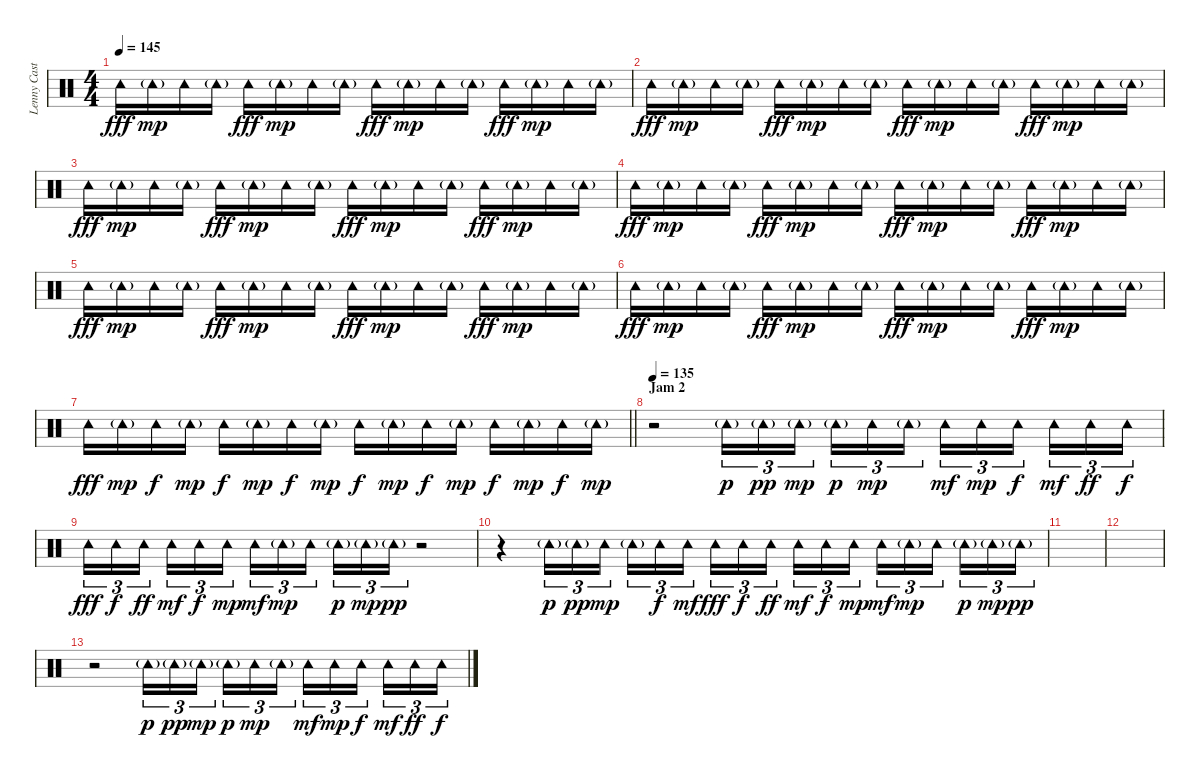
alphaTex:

\track ("Lenny Castro - Percussion" "Lenny Cast") {instrument percussion}
\staff {score}
\articulation defaults
\ts (4 4)
\tempo 145
\clef neutral
\ks c "Tambourine (hit)".16{dy fff} "Tambourine (hit)"{g}.16{dy mp} "Tambourine (hit)".16 "Tambourine (hit)"{g}.16 "Tambourine (hit)".16{dy fff} "Tambourine (hit)"{g}.16{dy mp} "Tambourine (hit)".16 "Tambourine (hit)"{g}.16 "Tambourine (hit)".16{dy fff} "Tambourine (hit)"{g}.16{dy mp} "Tambourine (hit)".16 "Tambourine (hit)"{g}.16 "Tambourine (hit)".16{dy fff} "Tambourine (hit)"{g}.16{dy mp} "Tambourine (hit)".16 "Tambourine (hit)"{g}.16
|
"Tambourine (hit)".16{dy fff} "Tambourine (hit)"{g}.16{dy mp} "Tambourine (hit)".16 "Tambourine (hit)"{g}.16 "Tambourine (hit)".16{dy fff} "Tambourine (hit)"{g}.16{dy mp} "Tambourine (hit)".16 "Tambourine (hit)"{g}.16 "Tambourine (hit)".16{dy fff} "Tambourine (hit)"{g}.16{dy mp} "Tambourine (hit)".16 "Tambourine (hit)"{g}.16 "Tambourine (hit)".16{dy fff} "Tambourine (hit)"{g}.16{dy mp} "Tambourine (hit)".16 "Tambourine (hit)"{g}.16 |
"Tambourine (hit)".16{dy fff} "Tambourine (hit)"{g}.16{dy mp} "Tambourine (hit)".16 "Tambourine (hit)"{g}.16 "Tambourine (hit)".16{dy fff} "Tambourine (hit)"{g}.16{dy mp} "Tambourine (hit)".16 "Tambourine (hit)"{g}.16 "Tambourine (hit)".16{dy fff} "Tambourine (hit)"{g}.16{dy mp} "Tambourine (hit)".16 "Tambourine (hit)"{g}.16 "Tambourine (hit)".16{dy fff} "Tambourine (hit)"{g}.16{dy mp} "Tambourine (hit)".16 "Tambourine (hit)"{g}.16 |
"Tambourine (hit)".16{dy fff} "Tambourine (hit)"{g}.16{dy mp} "Tambourine (hit)".16 "Tambourine (hit)"{g}.16 "Tambourine (hit)".16{dy fff} "Tambourine (hit)"{g}.16{dy mp} "Tambourine (hit)".16 "Tambourine (hit)"{g}.16 "Tambourine (hit)".16{dy fff} "Tambourine (hit)"{g}.16{dy mp} "Tambourine (hit)".16 "Tambourine (hit)"{g}.16 "Tambourine (hit)".16{dy fff} "Tambourine (hit)"{g}.16{dy mp} "Tambourine (hit)".16 "Tambourine (hit)"{g}.16 |
"Tambourine (hit)".16{dy fff} "Tambourine (hit)"{g}.16{dy mp} "Tambourine (hit)".16 "Tambourine (hit)"{g}.16 "Tambourine (hit)".16{dy fff} "Tambourine (hit)"{g}.16{dy mp} "Tambourine (hit)".16 "Tambourine (hit)"{g}.16 "Tambourine (hit)".16{dy fff} "Tambourine (hit)"{g}.16{dy mp} "Tambourine (hit)".16 "Tambourine (hit)"{g}.16 "Tambourine (hit)".16{dy fff} "Tambourine (hit)"{g}.16{dy mp} "Tambourine (hit)".16 "Tambourine (hit)"{g}.16 |
"Tambourine (hit)".16{dy fff} "Tambourine (hit)"{g}.16{dy mp} "Tambourine (hit)".16 "Tambourine (hit)"{g}.16 "Tambourine (hit)".16{dy fff} "Tambourine (hit)"{g}.16{dy mp} "Tambourine (hit)".16 "Tambourine (hit)"{g}.16 "Tambourine (hit)".16{dy fff} "Tambourine (hit)"{g}.16{dy mp} "Tambourine (hit)".16 "Tambourine (hit)"{g}.16 "Tambourine (hit)".16{dy fff} "Tambourine (hit)"{g}.16{dy mp} "Tambourine (hit)".16 "Tambourine (hit)"{g}.16 |
\barLineRight lightlight "Tambourine (hit)".16{dy fff} "Tambourine (hit)"{g}.16{dy mp} "Tambourine (hit)".16{dy f} "Tambourine (hit)"{g}.16{dy mp} "Tambourine (hit)".16{dy f} "Tambourine (hit)"{g}.16{dy mp} "Tambourine (hit)".16{dy f} "Tambourine (hit)"{g}.16{dy mp} "Tambourine (hit)".16{dy f} "Tambourine (hit)"{g}.16{dy mp} "Tambourine (hit)".16{dy f} "Tambourine (hit)"{g}.16{dy mp} "Tambourine (hit)".16{dy f} "Tambourine (hit)"{g}.16{dy mp} "Tambourine (hit)".16{dy f} "Tambourine (hit)"{g}.16{dy mp}
|
\section ("" "Jam 2")
\tempo 135
r.2 "Tambourine (hit)"{g}.16{tu (3 2) dy p} "Tambourine (hit)"{g}.16{tu (3 2) dy pp} "Tambourine (hit)"{g}.16{tu (3 2) dy mp beam splitsecondary} "Tambourine (hit)"{g}.16{tu (3 2) dy p} "Tambourine (hit)".16{tu (3 2) dy mp} "Tambourine (hit)"{g}.16{tu (3 2)} "Tambourine (hit)".16{tu (3 2) dy mf} "Tambourine (hit)".16{tu (3 2) dy mp} "Tambourine (hit)".16{tu (3 2) dy f beam splitsecondary} "Tambourine (hit)".16{tu (3 2) dy mf} "Tambourine (hit)".16{tu (3 2) dy ff} "Tambourine (hit)".16{tu (3 2) dy f} |
"Tambourine (hit)".16{tu (3 2) dy fff} "Tambourine (hit)".16{tu (3 2) dy f} "Tambourine (hit)".16{tu (3 2) dy ff beam splitsecondary} "Tambourine (hit)".16{tu (3 2) dy mf} "Tambourine (hit)".16{tu (3 2) dy f} "Tambourine (hit)".16{tu (3 2) dy mp} "Tambourine (hit)".16{tu (3 2) dy mf} "Tambourine (hit)"{g}.16{tu (3 2) dy mp} "Tambourine (hit)".16{tu (3 2) beam splitsecondary} "Tambourine (hit)"{g}.16{tu (3 2) dy p} "Tambourine (hit)"{g}.16{tu (3 2) dy mp} "Tambourine (hit)"{g}.16{tu (3 2) dy pp} r.2 |
r.4 "Tambourine (hit)"{g}.16{tu (3 2) dy p} "Tambourine (hit)"{g}.16{tu (3 2) dy pp} "Tambourine (hit)".16{tu (3 2) dy mp beam splitsecondary} "Tambourine (hit)"{g}.16{tu (3 2)} "Tambourine (hit)".16{tu (3 2) dy f} "Tambourine (hit)".16{tu (3 2) dy mf} "Tambourine (hit)".16{tu (3 2) dy fff} "Tambourine (hit)".16{tu (3 2) dy f} "Tambourine (hit)".16{tu (3 2) dy ff beam splitsecondary} "Tambourine (hit)".16{tu (3 2) dy mf} "Tambourine (hit)".16{tu (3 2) dy f} "Tambourine (hit)".16{tu (3 2) dy mp} "Tambourine (hit)".16{tu (3 2) dy mf} "Tambourine (hit)"{g}.16{tu (3 2) dy mp} "Tambourine (hit)".16{tu (3 2) beam splitsecondary} "Tambourine (hit)"{g}.16{tu (3 2) dy p} "Tambourine (hit)"{g}.16{tu (3 2) dy mp} "Tambourine (hit)"{g}.16{tu (3 2) dy pp} |
|
|
r.2 "Tambourine (hit)"{g}.16{tu (3 2) dy p} "Tambourine (hit)"{g}.16{tu (3 2) dy pp} "Tambourine (hit)"{g}.16{tu (3 2) dy mp beam splitsecondary} "Tambourine (hit)"{g}.16{tu (3 2) dy p} "Tambourine (hit)".16{tu (3 2) dy mp} "Tambourine (hit)"{g}.16{tu (3 2)} "Tambourine (hit)".16{tu (3 2) dy mf} "Tambourine (hit)".16{tu (3 2) dy mp} "Tambourine (hit)".16{tu (3 2) dy f beam splitsecondary} "Tambourine (hit)".16{tu (3 2) dy mf} "Tambourine (hit)".16{tu (3 2) dy ff} "Tambourine (hit)".16{tu (3 2) dy f}
